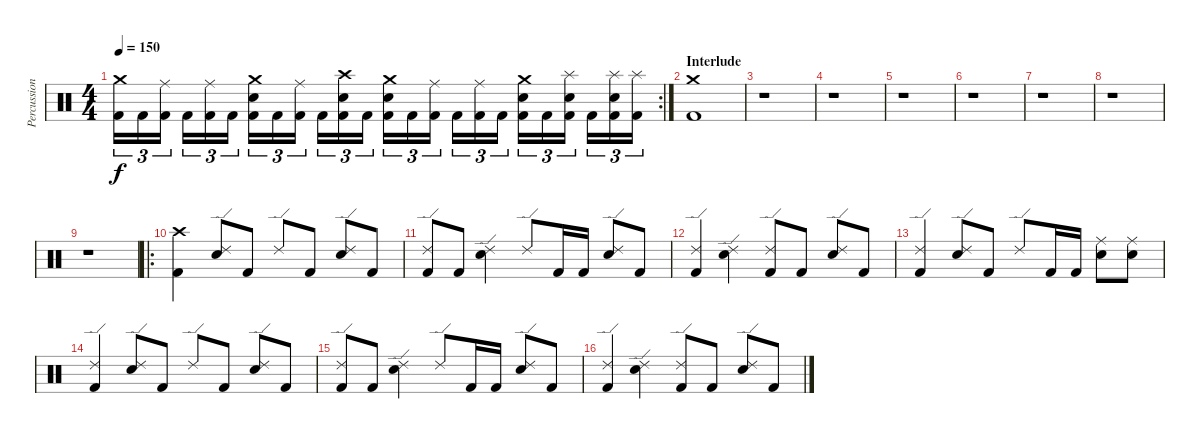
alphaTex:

\track ("Percussion" "Percussion") {instrument percussion}
\staff {score}
\articulation defaults
\rc 2
\ts (4 4)
\tempo 150
\clef neutral
\ks c
("Kick (hit) 2" "Crash medium (hit)").16{tu (3 2) dy f} "Kick (hit) 2".16{tu (3 2)} ("Kick (hit) 2" "Ride (middle)").16{tu (3 2)} "Kick (hit) 2".16{tu (3 2)} ("Kick (hit) 2" "Ride (middle)").16{tu (3 2)} "Kick (hit) 2".16{tu (3 2)} ("Kick (hit) 2" "Electric Snare (hit)" "Crash medium (hit)").16{tu (3 2)} "Kick (hit) 2".16{tu (3 2)} ("Kick (hit) 2" "Ride (middle)").16{tu (3 2)} "Kick (hit) 2".16{tu (3 2)} ("Kick (hit) 2" "Electric Snare (hit)" "Crash high (hit)").16{tu (3 2)} "Kick (hit) 2".16{tu (3 2)} ("Kick (hit) 2" "Electric Snare (hit)" "Crash medium (hit)").16{tu (3 2)} "Kick (hit) 2".16{tu (3 2)} ("Kick (hit) 2" "Ride (middle)").16{tu (3 2)} "Kick (hit) 2".16{tu (3 2)} ("Kick (hit) 2" "Ride (middle)").16{tu (3 2)} "Kick (hit) 2".16{tu (3 2)} ("Kick (hit) 2" "Electric Snare (hit)" "Crash medium (hit)").16{tu (3 2)} "Kick (hit) 2".16{tu (3 2)} ("Kick (hit) 2" "Electric Snare (hit)" "Splash (hit)").16{tu (3 2)} "Kick (hit) 2".16{tu (3 2)} ("Kick (hit) 2" "Electric Snare (hit)" "Splash (hit)").16{tu (3 2)} ("Kick (hit) 2" "Splash (hit)").16{tu (3 2)} |
\section ("" "Interlude")
("Kick (hit) 2" "Crash medium (hit)").1 |
r.1 |
r.1 |
r.1 |
r.1 |
r.1 |
r.1 |
r.1 |
\ro
("Kick (hit) 2" "Crash high (hit)").4 ("Electric Snare (hit)" "Ride (edge) 2").8 "Kick (hit) 2".8 "Ride (edge) 2".8 "Kick (hit) 2".8 ("Electric Snare (hit)" "Ride (edge) 2").8 "Kick (hit) 2".8 |
("Kick (hit) 2" "Ride (edge) 2").8 "Kick (hit) 2".8 ("Electric Snare (hit)" "Ride (edge) 2").4 "Ride (edge) 2".8 "Kick (hit) 2".16 "Kick (hit) 2".16 ("Electric Snare (hit)" "Ride (edge) 2").8 "Kick (hit) 2".8 |
("Kick (hit) 2" "Ride (edge) 2").4 ("Electric Snare (hit)" "Ride (edge) 2").4 ("Kick (hit) 2" "Ride (edge) 2").8 "Kick (hit) 2".8 ("Electric Snare (hit)" "Ride (edge) 2").8 "Kick (hit) 2".8 |
("Kick (hit) 2" "Ride (edge) 2").4 ("Electric Snare (hit)" "Ride (edge) 2").8 "Kick (hit) 2".8 "Ride (edge) 2".8 "Kick (hit) 2".16 "Kick (hit) 2".16 ("Electric Snare (hit)" "Ride (middle)").8 ("Electric Snare (hit)" "Ride (middle)").8 |
("Kick (hit) 2" "Ride (edge) 2").4 ("Electric Snare (hit)" "Ride (edge) 2").8 "Kick (hit) 2".8 "Ride (edge) 2".8 "Kick (hit) 2".8 ("Electric Snare (hit)" "Ride (edge) 2").8 "Kick (hit) 2".8 |
("Kick (hit) 2" "Ride (edge) 2").8 "Kick (hit) 2".8 ("Electric Snare (hit)" "Ride (edge) 2").4 "Ride (edge) 2".8 "Kick (hit) 2".16 "Kick (hit) 2".16 ("Electric Snare (hit)" "Ride (edge) 2").8 "Kick (hit) 2".8 |
("Kick (hit) 2" "Ride (edge) 2").4 ("Electric Snare (hit)" "Ride (edge) 2").4 ("Kick (hit) 2" "Ride (edge) 2").8 "Kick (hit) 2".8 ("Electric Snare (hit)" "Ride (edge) 2").8 "Kick (hit) 2".8
